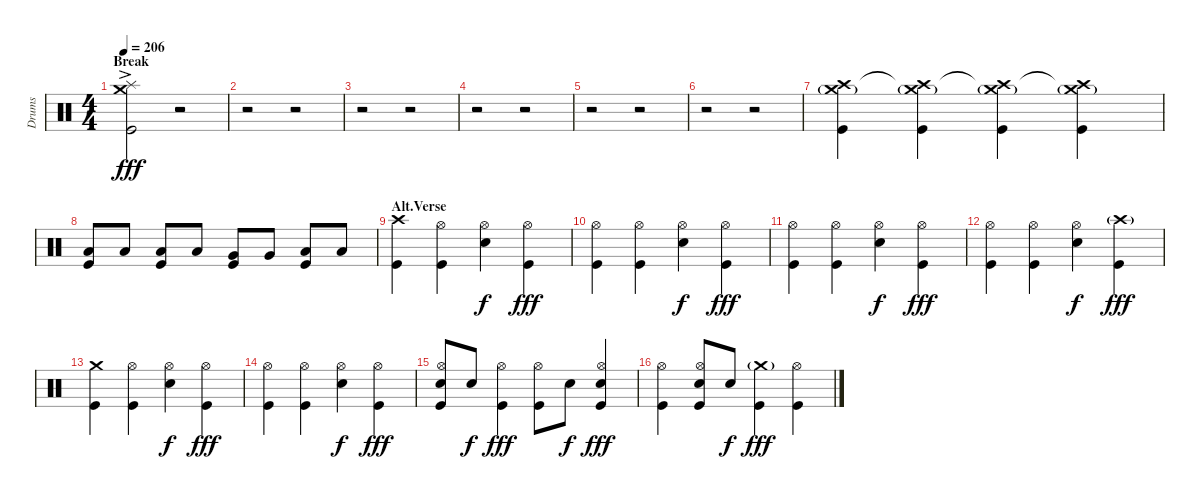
\track ("Drums" "Drums") {instrument percussion}
\staff {score}
\articulation defaults
\ts (4 4)
\section ("" "Break")
\tempo 206
\clef neutral
\ks c
("Crash medium (hit)"{ac} "Splash (hit)" "Kick (hit)").2{dy fff} r.2 |
r.2 r.2 |
r.2 r.2 |
r.2 r.2 |
r.2 r.2 |
r.2 r.2 |
("Crash medium (hit)"{g} "Crash high (hit)" "Kick (hit)").4 ("Crash medium (hit)"{g} "Crash high (hit)"{t} "Kick (hit)").4 ("Crash medium (hit)"{g} "Crash high (hit)"{t} "Kick (hit)").4 ("Crash medium (hit)"{g} "Crash high (hit)"{t} "Kick (hit)").4 |
("Low Tom (hit)" "Kick (hit)").8 "Low Tom (hit)".8 ("Low Tom (hit)" "Kick (hit)").8 "Low Tom (hit)".8 ("Very Low Tom (hit)" "Kick (hit)").8 "Very Low Tom (hit)".8 ("Low Floor Tom (hit)" "Kick (hit)").8 "Low Floor Tom (hit)".8 |
\section ("" "Alt.Verse")
("Crash high (hit)" "Kick (hit)").4 ("Hi-Hat (open)" "Kick (hit)").4 ("Hi-Hat (open)" "Snare (hit) 2").4{dy f} ("Hi-Hat (open)" "Kick (hit)").4{dy fff} |
("Hi-Hat (open)" "Kick (hit)").4 ("Hi-Hat (open)" "Kick (hit)").4 ("Hi-Hat (open)" "Snare (hit) 2").4{dy f} ("Hi-Hat (open)" "Kick (hit)").4{dy fff} |
("Hi-Hat (open)" "Kick (hit)").4 ("Hi-Hat (open)" "Kick (hit)").4 ("Hi-Hat (open)" "Snare (hit) 2").4{dy f} ("Hi-Hat (open)" "Kick (hit)").4{dy fff} |
("Hi-Hat (open)" "Kick (hit)").4 ("Hi-Hat (open)" "Kick (hit)").4 ("Hi-Hat (open)" "Snare (hit) 2").4{dy f} ("Crash high (hit)"{g} "Kick (hit)").4{dy fff} |
("Crash medium (hit)" "Kick (hit)").4 ("Hi-Hat (open)" "Kick (hit)").4 ("Hi-Hat (open)" "Snare (hit) 2").4{dy f} ("Hi-Hat (open)" "Kick (hit)").4{dy fff} |
("Hi-Hat (open)" "Kick (hit)").4 ("Hi-Hat (open)" "Kick (hit)").4 ("Hi-Hat (open)" "Snare (hit) 2").4{dy f} ("Hi-Hat (open)" "Kick (hit)").4{dy fff} |
("Hi-Hat (open)" "Snare (hit) 2" "Kick (hit)").8 "Snare (hit) 2".8{dy f} ("Hi-Hat (open)" "Kick (hit)").4{dy fff} ("Hi-Hat (open)" "Kick (hit)").8 "Snare (hit) 2".8{dy f} ("Hi-Hat (open)" "Snare (hit) 2" "Kick (hit)").4{dy fff} |
("Hi-Hat (open)" "Kick (hit)").4 ("Hi-Hat (open)" "Snare (hit) 2" "Kick (hit)").8 "Snare (hit) 2".8{dy f} ("Crash medium (hit)"{g} "Kick (hit)").4{dy fff} ("Hi-Hat (open)" "Kick (hit)").4
